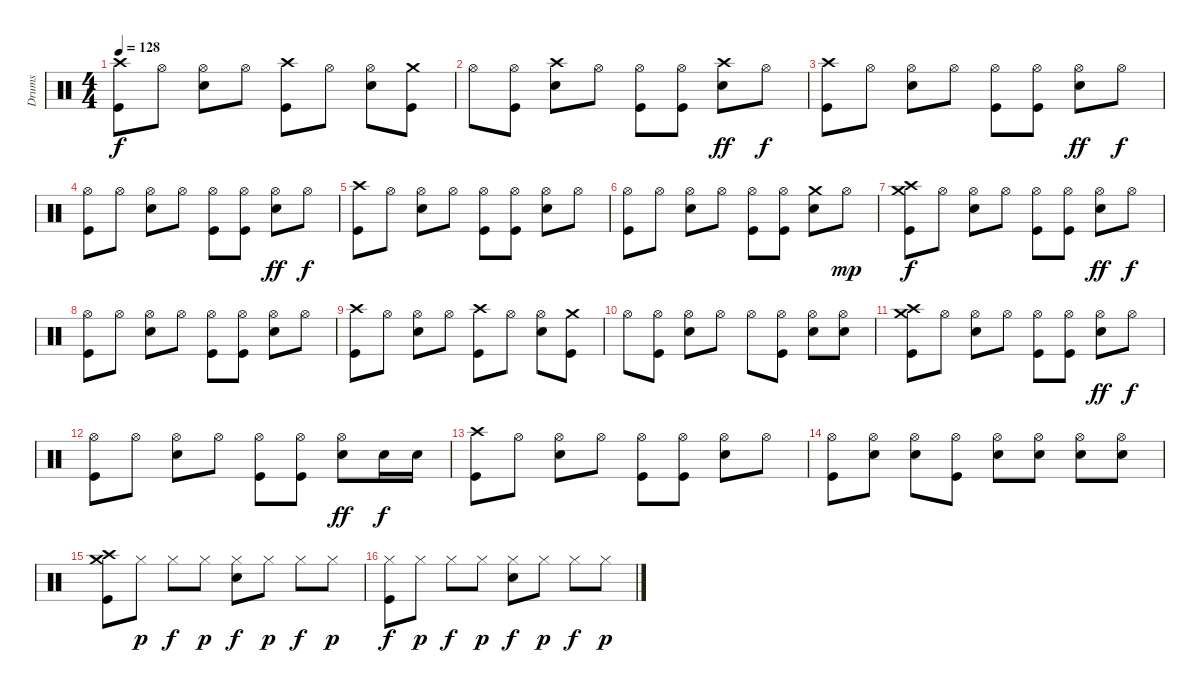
\track ("Drums" "Drums") {instrument percussion}
\staff {score}
\articulation defaults
\ts (4 4)
\tempo 128
\clef neutral
\ks c
("Crash high (hit)" "Kick (hit)").8{dy f} "Hi-Hat (open)".8 ("Hi-Hat (open)" "Snare (hit) 2").8 "Hi-Hat (open)".8 ("Crash high (hit)" "Kick (hit)").8 "Hi-Hat (open)".8 ("Hi-Hat (open)" "Snare (hit) 2").8 ("Crash medium (hit)" "Kick (hit)").8 |
"Hi-Hat (open)".8 ("Hi-Hat (open)" "Kick (hit)").8 ("Crash high (hit)" "Snare (hit) 2").8 "Hi-Hat (open)".8 ("Hi-Hat (open)" "Kick (hit)").8 ("Hi-Hat (open)" "Kick (hit)").8 ("Crash high (hit)" "Snare (hit) 2").8{dy ff} "Hi-Hat (open)".8{dy f} |
("Crash high (hit)" "Kick (hit)").8 "Hi-Hat (open)".8 ("Hi-Hat (open)" "Snare (hit) 2").8 "Hi-Hat (open)".8 ("Hi-Hat (open)" "Kick (hit)").8 ("Hi-Hat (open)" "Kick (hit)").8 ("Hi-Hat (open)" "Snare (hit) 2").8{dy ff} "Hi-Hat (open)".8{dy f} |
("Hi-Hat (open)" "Kick (hit)").8 "Hi-Hat (open)".8 ("Hi-Hat (open)" "Snare (hit) 2").8 "Hi-Hat (open)".8 ("Hi-Hat (open)" "Kick (hit)").8 ("Hi-Hat (open)" "Kick (hit)").8 ("Hi-Hat (open)" "Snare (hit) 2").8{dy ff} "Hi-Hat (open)".8{dy f} |
("Crash high (hit)" "Kick (hit)").8 "Hi-Hat (open)".8 ("Hi-Hat (open)" "Snare (hit) 2").8 "Hi-Hat (open)".8 ("Hi-Hat (open)" "Kick (hit)").8 ("Hi-Hat (open)" "Kick (hit)").8 ("Hi-Hat (open)" "Snare (hit) 2").8 "Hi-Hat (open)".8 |
("Hi-Hat (open)" "Kick (hit)").8 "Hi-Hat (open)".8 ("Hi-Hat (open)" "Snare (hit) 2").8 "Hi-Hat (open)".8 ("Hi-Hat (open)" "Kick (hit)").8 ("Hi-Hat (open)" "Kick (hit)").8 ("Crash medium (hit)" "Snare (hit) 2").8 "Hi-Hat (open)".8{dy mp} |
("Crash high (hit)" "Crash medium (hit)" "Kick (hit)").8{dy f} "Hi-Hat (open)".8 ("Hi-Hat (open)" "Snare (hit) 2").8 "Hi-Hat (open)".8 ("Hi-Hat (open)" "Kick (hit)").8 ("Hi-Hat (open)" "Kick (hit)").8 ("Hi-Hat (open)" "Snare (hit) 2").8{dy ff} "Hi-Hat (open)".8{dy f} |
("Hi-Hat (open)" "Kick (hit)").8 "Hi-Hat (open)".8 ("Hi-Hat (open)" "Snare (hit) 2").8 "Hi-Hat (open)".8 ("Hi-Hat (open)" "Kick (hit)").8 ("Hi-Hat (open)" "Kick (hit)").8 ("Hi-Hat (open)" "Snare (hit) 2").8 "Hi-Hat (open)".8 |
("Crash high (hit)" "Kick (hit)").8 "Hi-Hat (open)".8 ("Hi-Hat (open)" "Snare (hit) 2").8 "Hi-Hat (open)".8 ("Crash high (hit)" "Kick (hit)").8 "Hi-Hat (open)".8 ("Hi-Hat (open)" "Snare (hit) 2").8 ("Crash medium (hit)" "Kick (hit)").8 |
"Hi-Hat (open)".8 ("Hi-Hat (open)" "Kick (hit)").8 ("Hi-Hat (open)" "Snare (hit) 2").8 "Hi-Hat (open)".8 "Hi-Hat (open)".8 ("Hi-Hat (open)" "Kick (hit)").8 ("Hi-Hat (open)" "Snare (hit) 2").8 ("Hi-Hat (open)" "Snare (hit) 2").8 |
("Crash high (hit)" "Crash medium (hit)" "Kick (hit)").8 "Hi-Hat (open)".8 ("Hi-Hat (open)" "Snare (hit) 2").8 "Hi-Hat (open)".8 ("Hi-Hat (open)" "Kick (hit)").8 ("Hi-Hat (open)" "Kick (hit)").8 ("Hi-Hat (open)" "Snare (hit) 2").8{dy ff} "Hi-Hat (open)".8{dy f} |
("Hi-Hat (open)" "Kick (hit)").8 "Hi-Hat (open)".8 ("Hi-Hat (open)" "Snare (hit) 2").8 "Hi-Hat (open)".8 ("Hi-Hat (open)" "Kick (hit)").8 ("Hi-Hat (open)" "Kick (hit)").8 ("Hi-Hat (open)" "Snare (hit) 2").8{dy ff} "Snare (hit) 2".16{dy f} "Snare (hit) 2".16 |
("Crash high (hit)" "Kick (hit)").8 "Hi-Hat (open)".8 ("Hi-Hat (open)" "Snare (hit) 2").8 "Hi-Hat (open)".8 ("Hi-Hat (open)" "Kick (hit)").8 ("Hi-Hat (open)" "Kick (hit)").8 ("Hi-Hat (open)" "Snare (hit) 2").8 "Hi-Hat (open)".8 |
("Hi-Hat (open)" "Kick (hit)").8 ("Hi-Hat (open)" "Snare (hit) 2").8 ("Hi-Hat (open)" "Snare (hit) 2").8 ("Hi-Hat (open)" "Kick (hit)").8 ("Hi-Hat (open)" "Snare (hit) 2").8 ("Hi-Hat (open)" "Snare (hit) 2").8 ("Hi-Hat (open)" "Snare (hit) 2").8 ("Hi-Hat (open)" "Snare (hit) 2").8 |
("Crash high (hit)" "Crash medium (hit)" "Kick (hit)").8 "Hi-Hat (closed)".8{dy p} "Hi-Hat (closed)".8{dy f} "Hi-Hat (closed)".8{dy p} ("Hi-Hat (closed)" "Snare (hit) 2").8{dy f} "Hi-Hat (closed)".8{dy p} "Hi-Hat (closed)".8{dy f} "Hi-Hat (closed)".8{dy p} |
("Hi-Hat (closed)" "Kick (hit)").8{dy f} "Hi-Hat (closed)".8{dy p} "Hi-Hat (closed)".8{dy f} "Hi-Hat (closed)".8{dy p} ("Hi-Hat (closed)" "Snare (hit) 2").8{dy f} "Hi-Hat (closed)".8{dy p} "Hi-Hat (closed)".8{dy f} "Hi-Hat (closed)".8{dy p}
